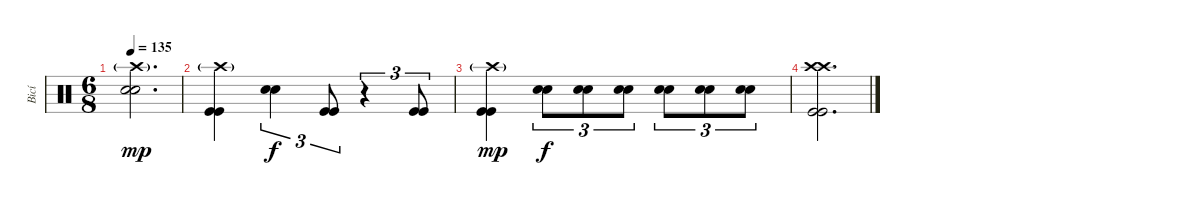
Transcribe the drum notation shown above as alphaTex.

\track ("Bicí" "Bicí") {instrument percussion}
\staff {score}
\articulation defaults
\ts (6 8)
\tempo 135
\clef neutral
\ks c
("Crash high (hit)"{g} "Electric Snare (hit)" "Electric Snare (hit)").2{d dy mp} |
("Crash high (hit)"{g} "Kick (hit)" "Kick (hit)").4 ("Electric Snare (hit)" "Electric Snare (hit)").4{tu (3 2) dy f} ("Kick (hit)" "Kick (hit)").8{tu (3 2)} r.4{tu (3 2)} ("Kick (hit)" "Kick (hit)").8{tu (3 2)} |
("Crash high (hit)"{g} "Kick (hit)" "Kick (hit)").4{dy mp} ("Electric Snare (hit)" "Electric Snare (hit)").8{tu (3 2) dy f} ("Electric Snare (hit)" "Electric Snare (hit)").8{tu (3 2)} ("Electric Snare (hit)" "Electric Snare (hit)").8{tu (3 2)} ("Electric Snare (hit)" "Electric Snare (hit)").8{tu (3 2)} ("Electric Snare (hit)" "Electric Snare (hit)").8{tu (3 2)} ("Electric Snare (hit)" "Electric Snare (hit)").8{tu (3 2)} |
("Crash high (hit)" "Crash high (hit)" "Kick (hit)" "Kick (hit)").2{d}
